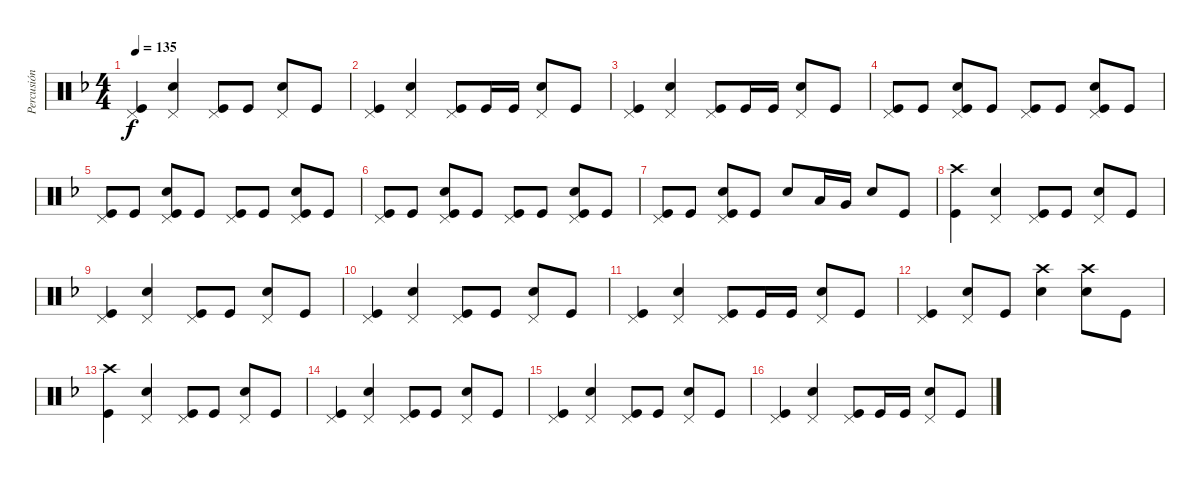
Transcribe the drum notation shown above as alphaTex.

\track ("Percusión" "Percusión") {instrument percussion}
\staff {score}
\articulation defaults
\ts (4 4)
\tempo 135
\clef neutral
\ks dminor
("Pedal Hi-Hat (hit)" "Kick (hit)").4{dy f} ("Pedal Hi-Hat (hit)" "Snare (hit) 2").4 ("Pedal Hi-Hat (hit)" "Kick (hit)").8 "Kick (hit)".8 ("Pedal Hi-Hat (hit)" "Snare (hit) 2").8 "Kick (hit)".8 |
("Pedal Hi-Hat (hit)" "Kick (hit)").4 ("Pedal Hi-Hat (hit)" "Snare (hit) 2").4 ("Pedal Hi-Hat (hit)" "Kick (hit)").8 "Kick (hit)".16 "Kick (hit)".16 ("Pedal Hi-Hat (hit)" "Snare (hit) 2").8 "Kick (hit)".8 |
("Pedal Hi-Hat (hit)" "Kick (hit)").4 ("Pedal Hi-Hat (hit)" "Snare (hit) 2").4 ("Pedal Hi-Hat (hit)" "Kick (hit)").8 "Kick (hit)".16 "Kick (hit)".16 ("Pedal Hi-Hat (hit)" "Snare (hit) 2").8 "Kick (hit)".8 |
("Pedal Hi-Hat (hit)" "Kick (hit)").8 "Kick (hit)".8 ("Pedal Hi-Hat (hit)" "Snare (hit) 2" "Kick (hit)").8 "Kick (hit)".8 ("Pedal Hi-Hat (hit)" "Kick (hit)").8 "Kick (hit)".8 ("Pedal Hi-Hat (hit)" "Snare (hit) 2" "Kick (hit)").8 "Kick (hit)".8 |
("Pedal Hi-Hat (hit)" "Kick (hit)").8 "Kick (hit)".8 ("Pedal Hi-Hat (hit)" "Snare (hit) 2" "Kick (hit)").8 "Kick (hit)".8 ("Pedal Hi-Hat (hit)" "Kick (hit)").8 "Kick (hit)".8 ("Pedal Hi-Hat (hit)" "Snare (hit) 2" "Kick (hit)").8 "Kick (hit)".8 |
("Pedal Hi-Hat (hit)" "Kick (hit)").8 "Kick (hit)".8 ("Pedal Hi-Hat (hit)" "Snare (hit) 2" "Kick (hit)").8 "Kick (hit)".8 ("Pedal Hi-Hat (hit)" "Kick (hit)").8 "Kick (hit)".8 ("Pedal Hi-Hat (hit)" "Snare (hit) 2" "Kick (hit)").8 "Kick (hit)".8 |
("Pedal Hi-Hat (hit)" "Kick (hit)").8 "Kick (hit)".8 ("Pedal Hi-Hat (hit)" "Snare (hit) 2" "Kick (hit)").8 "Kick (hit)".8 "Snare (hit) 2".8 "Low Tom (hit)".16 "Very Low Tom (hit)".16 "Snare (hit) 2".8 "Kick (hit)".8 |
("Crash high (hit)" "Kick (hit)").4 ("Pedal Hi-Hat (hit)" "Snare (hit) 2").4 ("Pedal Hi-Hat (hit)" "Kick (hit)").8 "Kick (hit)".8 ("Pedal Hi-Hat (hit)" "Snare (hit) 2").8 "Kick (hit)".8 |
("Pedal Hi-Hat (hit)" "Kick (hit)").4 ("Pedal Hi-Hat (hit)" "Snare (hit) 2").4 ("Pedal Hi-Hat (hit)" "Kick (hit)").8 "Kick (hit)".8 ("Pedal Hi-Hat (hit)" "Snare (hit) 2").8 "Kick (hit)".8 |
("Pedal Hi-Hat (hit)" "Kick (hit)").4 ("Pedal Hi-Hat (hit)" "Snare (hit) 2").4 ("Pedal Hi-Hat (hit)" "Kick (hit)").8 "Kick (hit)".8 ("Pedal Hi-Hat (hit)" "Snare (hit) 2").8 "Kick (hit)".8 |
("Pedal Hi-Hat (hit)" "Kick (hit)").4 ("Pedal Hi-Hat (hit)" "Snare (hit) 2").4 ("Pedal Hi-Hat (hit)" "Kick (hit)").8 "Kick (hit)".16 "Kick (hit)".16 ("Pedal Hi-Hat (hit)" "Snare (hit) 2").8 "Kick (hit)".8 |
("Pedal Hi-Hat (hit)" "Kick (hit)").4 ("Pedal Hi-Hat (hit)" "Snare (hit) 2").8 "Kick (hit)".8 ("Crash high (hit)" "Snare (hit) 2").4 ("Crash high (hit)" "Snare (hit) 2").8 "Kick (hit)".8 |
("Crash high (hit)" "Kick (hit)").4 ("Pedal Hi-Hat (hit)" "Snare (hit) 2").4 ("Pedal Hi-Hat (hit)" "Kick (hit)").8 "Kick (hit)".8 ("Pedal Hi-Hat (hit)" "Snare (hit) 2").8 "Kick (hit)".8 |
("Pedal Hi-Hat (hit)" "Kick (hit)").4 ("Pedal Hi-Hat (hit)" "Snare (hit) 2").4 ("Pedal Hi-Hat (hit)" "Kick (hit)").8 "Kick (hit)".8 ("Pedal Hi-Hat (hit)" "Snare (hit) 2").8 "Kick (hit)".8 |
("Pedal Hi-Hat (hit)" "Kick (hit)").4 ("Pedal Hi-Hat (hit)" "Snare (hit) 2").4 ("Pedal Hi-Hat (hit)" "Kick (hit)").8 "Kick (hit)".8 ("Pedal Hi-Hat (hit)" "Snare (hit) 2").8 "Kick (hit)".8 |
("Pedal Hi-Hat (hit)" "Kick (hit)").4 ("Pedal Hi-Hat (hit)" "Snare (hit) 2").4 ("Pedal Hi-Hat (hit)" "Kick (hit)").8 "Kick (hit)".16 "Kick (hit)".16 ("Pedal Hi-Hat (hit)" "Snare (hit) 2").8 "Kick (hit)".8
